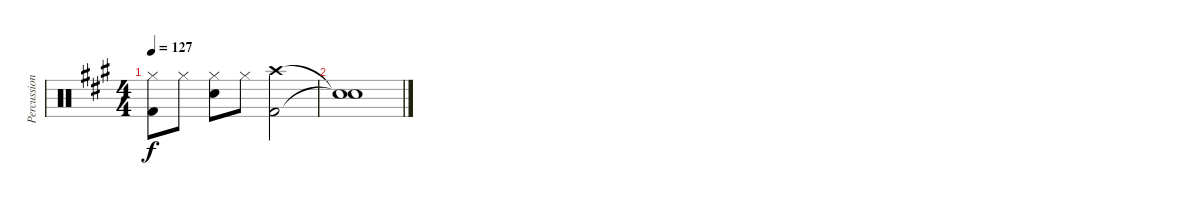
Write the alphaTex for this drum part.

\track ("Percussion" "Percussion") {instrument percussion}
\staff {score}
\articulation defaults
\ts (4 4)
\tempo 127
\clef neutral
\ks a
("Hi-Hat (closed)" "Kick (hit) 2").8{dy f} "Hi-Hat (closed)".8 ("Hi-Hat (closed)" "Snare (hit) 2").8 "Hi-Hat (closed)".8 ("Crash high (hit)" "Kick (hit) 2").2 |
("Snare (hit)"{t} "Snare (hit)"{t}).1
